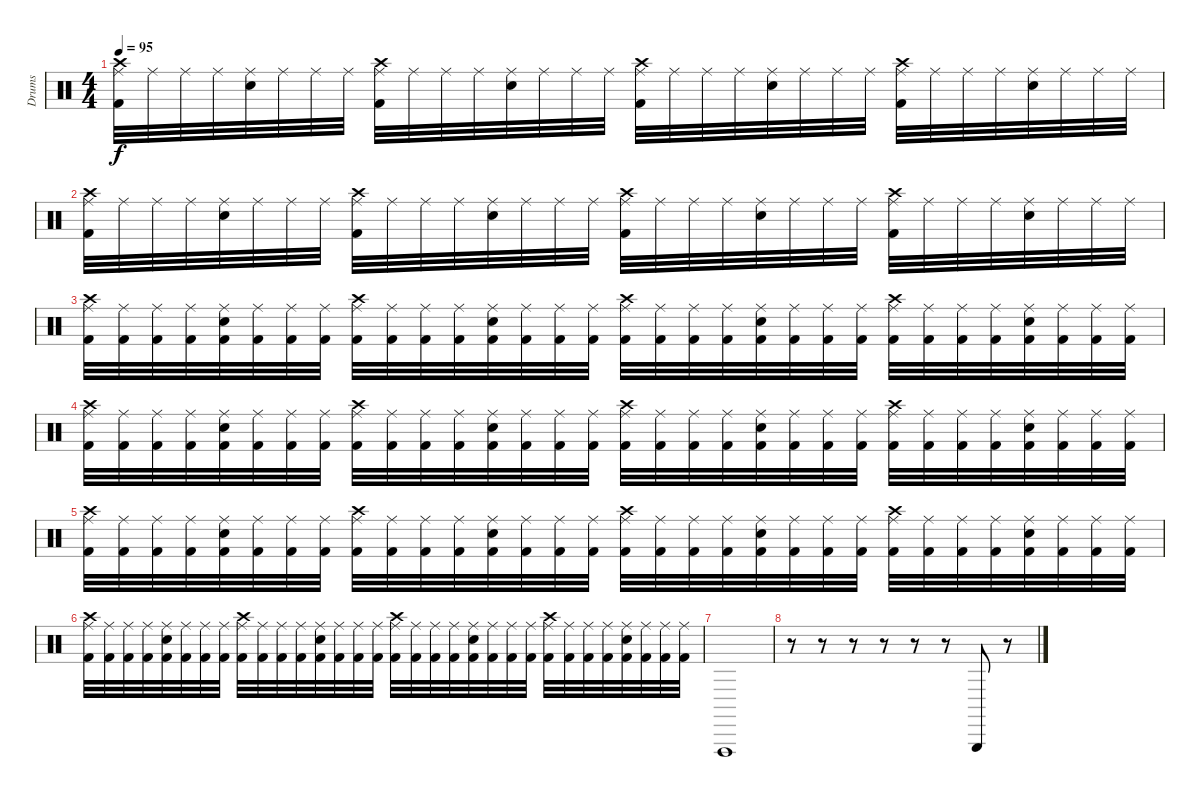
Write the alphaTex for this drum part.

\track ("Drums" "Drums") {instrument percussion}
\staff {score}
\articulation defaults
\ts (4 4)
\tempo 95
\clef neutral
\ks c
("Crash high (hit)" "Ride (middle)" "Kick (hit) 2").32{dy f} "Ride (middle)".32 "Ride (middle)".32 "Ride (middle)".32 ("Ride (middle)" "Snare (hit) 2").32 "Ride (middle)".32 "Ride (middle)".32 "Ride (middle)".32 ("Crash high (hit)" "Ride (middle)" "Kick (hit) 2").32 "Ride (middle)".32 "Ride (middle)".32 "Ride (middle)".32 ("Ride (middle)" "Snare (hit) 2").32 "Ride (middle)".32 "Ride (middle)".32 "Ride (middle)".32 ("Crash high (hit)" "Ride (middle)" "Kick (hit) 2").32 "Ride (middle)".32 "Ride (middle)".32 "Ride (middle)".32 ("Ride (middle)" "Snare (hit) 2").32 "Ride (middle)".32 "Ride (middle)".32 "Ride (middle)".32 ("Crash high (hit)" "Ride (middle)" "Kick (hit) 2").32 "Ride (middle)".32 "Ride (middle)".32 "Ride (middle)".32 ("Ride (middle)" "Snare (hit) 2").32 "Ride (middle)".32 "Ride (middle)".32 "Ride (middle)".32 |
("Crash high (hit)" "Ride (middle)" "Kick (hit) 2").32 "Ride (middle)".32 "Ride (middle)".32 "Ride (middle)".32 ("Ride (middle)" "Snare (hit) 2").32 "Ride (middle)".32 "Ride (middle)".32 "Ride (middle)".32 ("Crash high (hit)" "Ride (middle)" "Kick (hit) 2").32 "Ride (middle)".32 "Ride (middle)".32 "Ride (middle)".32 ("Ride (middle)" "Snare (hit) 2").32 "Ride (middle)".32 "Ride (middle)".32 "Ride (middle)".32 ("Crash high (hit)" "Ride (middle)" "Kick (hit) 2").32 "Ride (middle)".32 "Ride (middle)".32 "Ride (middle)".32 ("Ride (middle)" "Snare (hit) 2").32 "Ride (middle)".32 "Ride (middle)".32 "Ride (middle)".32 ("Crash high (hit)" "Ride (middle)" "Kick (hit) 2").32 "Ride (middle)".32 "Ride (middle)".32 "Ride (middle)".32 ("Ride (middle)" "Snare (hit) 2").32 "Ride (middle)".32 "Ride (middle)".32 "Ride (middle)".32 |
("Crash high (hit)" "Ride (middle)" "Kick (hit) 2").32 ("Ride (middle)" "Kick (hit) 2").32 ("Ride (middle)" "Kick (hit) 2").32 ("Ride (middle)" "Kick (hit) 2").32 ("Ride (middle)" "Snare (hit) 2" "Kick (hit) 2").32 ("Ride (middle)" "Kick (hit) 2").32 ("Ride (middle)" "Kick (hit) 2").32 ("Ride (middle)" "Kick (hit) 2").32 ("Crash high (hit)" "Ride (middle)" "Kick (hit) 2").32 ("Ride (middle)" "Kick (hit) 2").32 ("Ride (middle)" "Kick (hit) 2").32 ("Ride (middle)" "Kick (hit) 2").32 ("Ride (middle)" "Snare (hit) 2" "Kick (hit) 2").32 ("Ride (middle)" "Kick (hit) 2").32 ("Ride (middle)" "Kick (hit) 2").32 ("Ride (middle)" "Kick (hit) 2").32 ("Crash high (hit)" "Ride (middle)" "Kick (hit) 2").32 ("Ride (middle)" "Kick (hit) 2").32 ("Ride (middle)" "Kick (hit) 2").32 ("Ride (middle)" "Kick (hit) 2").32 ("Ride (middle)" "Snare (hit) 2" "Kick (hit) 2").32 ("Ride (middle)" "Kick (hit) 2").32 ("Ride (middle)" "Kick (hit) 2").32 ("Ride (middle)" "Kick (hit) 2").32 ("Crash high (hit)" "Ride (middle)" "Kick (hit) 2").32 ("Ride (middle)" "Kick (hit) 2").32 ("Ride (middle)" "Kick (hit) 2").32 ("Ride (middle)" "Kick (hit) 2").32 ("Ride (middle)" "Snare (hit) 2" "Kick (hit) 2").32 ("Ride (middle)" "Kick (hit) 2").32 ("Ride (middle)" "Kick (hit) 2").32 ("Ride (middle)" "Kick (hit) 2").32 |
("Crash high (hit)" "Ride (middle)" "Kick (hit) 2").32 ("Ride (middle)" "Kick (hit) 2").32 ("Ride (middle)" "Kick (hit) 2").32 ("Ride (middle)" "Kick (hit) 2").32 ("Ride (middle)" "Snare (hit) 2" "Kick (hit) 2").32 ("Ride (middle)" "Kick (hit) 2").32 ("Ride (middle)" "Kick (hit) 2").32 ("Ride (middle)" "Kick (hit) 2").32 ("Crash high (hit)" "Ride (middle)" "Kick (hit) 2").32 ("Ride (middle)" "Kick (hit) 2").32 ("Ride (middle)" "Kick (hit) 2").32 ("Ride (middle)" "Kick (hit) 2").32 ("Ride (middle)" "Snare (hit) 2" "Kick (hit) 2").32 ("Ride (middle)" "Kick (hit) 2").32 ("Ride (middle)" "Kick (hit) 2").32 ("Ride (middle)" "Kick (hit) 2").32 ("Crash high (hit)" "Ride (middle)" "Kick (hit) 2").32 ("Ride (middle)" "Kick (hit) 2").32 ("Ride (middle)" "Kick (hit) 2").32 ("Ride (middle)" "Kick (hit) 2").32 ("Ride (middle)" "Snare (hit) 2" "Kick (hit) 2").32 ("Ride (middle)" "Kick (hit) 2").32 ("Ride (middle)" "Kick (hit) 2").32 ("Ride (middle)" "Kick (hit) 2").32 ("Crash high (hit)" "Ride (middle)" "Kick (hit) 2").32 ("Ride (middle)" "Kick (hit) 2").32 ("Ride (middle)" "Kick (hit) 2").32 ("Ride (middle)" "Kick (hit) 2").32 ("Ride (middle)" "Snare (hit) 2" "Kick (hit) 2").32 ("Ride (middle)" "Kick (hit) 2").32 ("Ride (middle)" "Kick (hit) 2").32 ("Ride (middle)" "Kick (hit) 2").32 |
("Crash high (hit)" "Ride (middle)" "Kick (hit) 2").32 ("Ride (middle)" "Kick (hit) 2").32 ("Ride (middle)" "Kick (hit) 2").32 ("Ride (middle)" "Kick (hit) 2").32 ("Ride (middle)" "Snare (hit) 2" "Kick (hit) 2").32 ("Ride (middle)" "Kick (hit) 2").32 ("Ride (middle)" "Kick (hit) 2").32 ("Ride (middle)" "Kick (hit) 2").32 ("Crash high (hit)" "Ride (middle)" "Kick (hit) 2").32 ("Ride (middle)" "Kick (hit) 2").32 ("Ride (middle)" "Kick (hit) 2").32 ("Ride (middle)" "Kick (hit) 2").32 ("Ride (middle)" "Snare (hit) 2" "Kick (hit) 2").32 ("Ride (middle)" "Kick (hit) 2").32 ("Ride (middle)" "Kick (hit) 2").32 ("Ride (middle)" "Kick (hit) 2").32 ("Crash high (hit)" "Ride (middle)" "Kick (hit) 2").32 ("Ride (middle)" "Kick (hit) 2").32 ("Ride (middle)" "Kick (hit) 2").32 ("Ride (middle)" "Kick (hit) 2").32 ("Ride (middle)" "Snare (hit) 2" "Kick (hit) 2").32 ("Ride (middle)" "Kick (hit) 2").32 ("Ride (middle)" "Kick (hit) 2").32 ("Ride (middle)" "Kick (hit) 2").32 ("Crash high (hit)" "Ride (middle)" "Kick (hit) 2").32 ("Ride (middle)" "Kick (hit) 2").32 ("Ride (middle)" "Kick (hit) 2").32 ("Ride (middle)" "Kick (hit) 2").32 ("Ride (middle)" "Snare (hit) 2" "Kick (hit) 2").32 ("Ride (middle)" "Kick (hit) 2").32 ("Ride (middle)" "Kick (hit) 2").32 ("Ride (middle)" "Kick (hit) 2").32 |
("Crash high (hit)" "Ride (middle)" "Kick (hit) 2").32 ("Ride (middle)" "Kick (hit) 2").32 ("Ride (middle)" "Kick (hit) 2").32 ("Ride (middle)" "Kick (hit) 2").32 ("Ride (middle)" "Snare (hit) 2" "Kick (hit) 2").32 ("Ride (middle)" "Kick (hit) 2").32 ("Ride (middle)" "Kick (hit) 2").32 ("Ride (middle)" "Kick (hit) 2").32 ("Crash high (hit)" "Ride (middle)" "Kick (hit) 2").32 ("Ride (middle)" "Kick (hit) 2").32 ("Ride (middle)" "Kick (hit) 2").32 ("Ride (middle)" "Kick (hit) 2").32 ("Ride (middle)" "Snare (hit) 2" "Kick (hit) 2").32 ("Ride (middle)" "Kick (hit) 2").32 ("Ride (middle)" "Kick (hit) 2").32 ("Ride (middle)" "Kick (hit) 2").32 ("Crash high (hit)" "Ride (middle)" "Kick (hit) 2").32 ("Ride (middle)" "Kick (hit) 2").32 ("Ride (middle)" "Kick (hit) 2").32 ("Ride (middle)" "Kick (hit) 2").32 ("Ride (middle)" "Snare (hit) 2" "Kick (hit) 2").32 ("Ride (middle)" "Kick (hit) 2").32 ("Ride (middle)" "Kick (hit) 2").32 ("Ride (middle)" "Kick (hit) 2").32 ("Crash high (hit)" "Ride (middle)" "Kick (hit) 2").32 ("Ride (middle)" "Kick (hit) 2").32 ("Ride (middle)" "Kick (hit) 2").32 ("Ride (middle)" "Kick (hit) 2").32 ("Ride (middle)" "Snare (hit) 2" "Kick (hit) 2").32 ("Ride (middle)" "Kick (hit) 2").32 ("Ride (middle)" "Kick (hit) 2").32 ("Ride (middle)" "Kick (hit) 2").32 |
"Vibraslap (hit)".1 |
r.8 r.8 r.8 r.8 r.8 r.8 "Triangle (hit)".8 r.8
